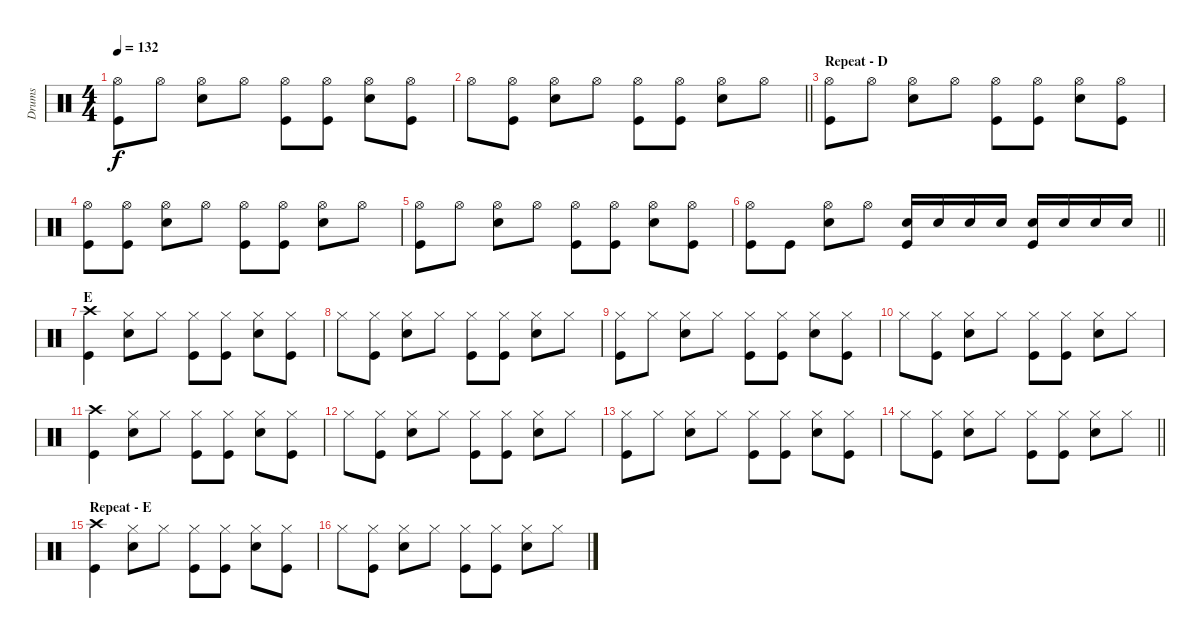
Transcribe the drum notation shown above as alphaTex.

\track ("Drums" "Drums") {instrument percussion}
\staff {score}
\articulation defaults
\ts (4 4)
\tempo 132
\clef neutral
\ks c
("Hi-Hat (open)" "Kick (hit)").8{dy f} "Hi-Hat (open)".8 ("Hi-Hat (open)" "Electric Snare (hit)").8 "Hi-Hat (open)".8 ("Hi-Hat (open)" "Kick (hit)").8 ("Hi-Hat (open)" "Kick (hit)").8 ("Hi-Hat (open)" "Electric Snare (hit)").8 ("Hi-Hat (open)" "Kick (hit)").8 |
\barLineRight lightlight "Hi-Hat (open)".8
("Hi-Hat (open)" "Kick (hit)").8 ("Hi-Hat (open)" "Electric Snare (hit)").8 "Hi-Hat (open)".8 ("Hi-Hat (open)" "Kick (hit)").8 ("Hi-Hat (open)" "Kick (hit)").8 ("Hi-Hat (open)" "Electric Snare (hit)").8 "Hi-Hat (open)".8 |
\section ("" "Repeat - D")
("Hi-Hat (open)" "Kick (hit)").8 "Hi-Hat (open)".8 ("Hi-Hat (open)" "Electric Snare (hit)").8 "Hi-Hat (open)".8 ("Hi-Hat (open)" "Kick (hit)").8 ("Hi-Hat (open)" "Kick (hit)").8 ("Hi-Hat (open)" "Electric Snare (hit)").8 ("Hi-Hat (open)" "Kick (hit)").8 |
("Hi-Hat (open)" "Kick (hit)").8 ("Hi-Hat (open)" "Kick (hit)").8 ("Hi-Hat (open)" "Electric Snare (hit)").8 "Hi-Hat (open)".8 ("Hi-Hat (open)" "Kick (hit)").8 ("Hi-Hat (open)" "Kick (hit)").8 ("Hi-Hat (open)" "Electric Snare (hit)").8 "Hi-Hat (open)".8 |
("Hi-Hat (open)" "Kick (hit)").8 "Hi-Hat (open)".8 ("Hi-Hat (open)" "Electric Snare (hit)").8 "Hi-Hat (open)".8 ("Hi-Hat (open)" "Kick (hit)").8 ("Hi-Hat (open)" "Kick (hit)").8 ("Hi-Hat (open)" "Electric Snare (hit)").8 ("Hi-Hat (open)" "Kick (hit)").8 |
\barLineRight lightlight
("Hi-Hat (open)" "Kick (hit)").8 "Kick (hit)".8 ("Hi-Hat (open)" "Electric Snare (hit)").8 "Hi-Hat (open)".8 ("Electric Snare (hit)" "Kick (hit)").16 "Electric Snare (hit)".16 "Electric Snare (hit)".16 "Electric Snare (hit)".16 ("Electric Snare (hit)" "Kick (hit)").16 "Electric Snare (hit)".16 "Electric Snare (hit)".16 "Electric Snare (hit)".16 |
\section ("" "E")
("Crash high (hit)" "Kick (hit)").4 ("Hi-Hat (closed)" "Electric Snare (hit)").8 "Hi-Hat (closed)".8 ("Hi-Hat (closed)" "Kick (hit)").8 ("Hi-Hat (closed)" "Kick (hit)").8 ("Hi-Hat (closed)" "Electric Snare (hit)").8 ("Hi-Hat (closed)" "Kick (hit)").8 |
"Hi-Hat (closed)".8 ("Hi-Hat (closed)" "Kick (hit)").8 ("Hi-Hat (closed)" "Electric Snare (hit)").8 "Hi-Hat (closed)".8 ("Hi-Hat (closed)" "Kick (hit)").8 ("Hi-Hat (closed)" "Kick (hit)").8 ("Hi-Hat (closed)" "Electric Snare (hit)").8 "Hi-Hat (closed)".8 |
("Hi-Hat (closed)" "Kick (hit)").8 "Hi-Hat (closed)".8 ("Hi-Hat (closed)" "Electric Snare (hit)").8 "Hi-Hat (closed)".8 ("Hi-Hat (closed)" "Kick (hit)").8 ("Hi-Hat (closed)" "Kick (hit)").8 ("Hi-Hat (closed)" "Electric Snare (hit)").8 ("Hi-Hat (closed)" "Kick (hit)").8 |
"Hi-Hat (closed)".8 ("Hi-Hat (closed)" "Kick (hit)").8 ("Hi-Hat (closed)" "Electric Snare (hit)").8 "Hi-Hat (closed)".8 ("Hi-Hat (closed)" "Kick (hit)").8 ("Hi-Hat (closed)" "Kick (hit)").8 ("Hi-Hat (closed)" "Electric Snare (hit)").8 "Hi-Hat (closed)".8 |
("Crash high (hit)" "Kick (hit)").4 ("Hi-Hat (closed)" "Electric Snare (hit)").8 "Hi-Hat (closed)".8 ("Hi-Hat (closed)" "Kick (hit)").8 ("Hi-Hat (closed)" "Kick (hit)").8 ("Hi-Hat (closed)" "Electric Snare (hit)").8 ("Hi-Hat (closed)" "Kick (hit)").8 |
"Hi-Hat (closed)".8 ("Hi-Hat (closed)" "Kick (hit)").8 ("Hi-Hat (closed)" "Electric Snare (hit)").8 "Hi-Hat (closed)".8 ("Hi-Hat (closed)" "Kick (hit)").8 ("Hi-Hat (closed)" "Kick (hit)").8 ("Hi-Hat (closed)" "Electric Snare (hit)").8 "Hi-Hat (closed)".8 |
("Hi-Hat (closed)" "Kick (hit)").8 "Hi-Hat (closed)".8 ("Hi-Hat (closed)" "Electric Snare (hit)").8 "Hi-Hat (closed)".8 ("Hi-Hat (closed)" "Kick (hit)").8 ("Hi-Hat (closed)" "Kick (hit)").8 ("Hi-Hat (closed)" "Electric Snare (hit)").8 ("Hi-Hat (closed)" "Kick (hit)").8 |
\barLineRight lightlight "Hi-Hat (closed)".8
("Hi-Hat (closed)" "Kick (hit)").8 ("Hi-Hat (closed)" "Electric Snare (hit)").8 "Hi-Hat (closed)".8 ("Hi-Hat (closed)" "Kick (hit)").8 ("Hi-Hat (closed)" "Kick (hit)").8 ("Hi-Hat (closed)" "Electric Snare (hit)").8 "Hi-Hat (closed)".8 |
\section ("" "Repeat - E")
("Crash high (hit)" "Kick (hit)").4 ("Hi-Hat (closed)" "Electric Snare (hit)").8 "Hi-Hat (closed)".8 ("Hi-Hat (closed)" "Kick (hit)").8 ("Hi-Hat (closed)" "Kick (hit)").8 ("Hi-Hat (closed)" "Electric Snare (hit)").8 ("Hi-Hat (closed)" "Kick (hit)").8 |
"Hi-Hat (closed)".8 ("Hi-Hat (closed)" "Kick (hit)").8 ("Hi-Hat (closed)" "Electric Snare (hit)").8 "Hi-Hat (closed)".8 ("Hi-Hat (closed)" "Kick (hit)").8 ("Hi-Hat (closed)" "Kick (hit)").8 ("Hi-Hat (closed)" "Electric Snare (hit)").8 "Hi-Hat (closed)".8
